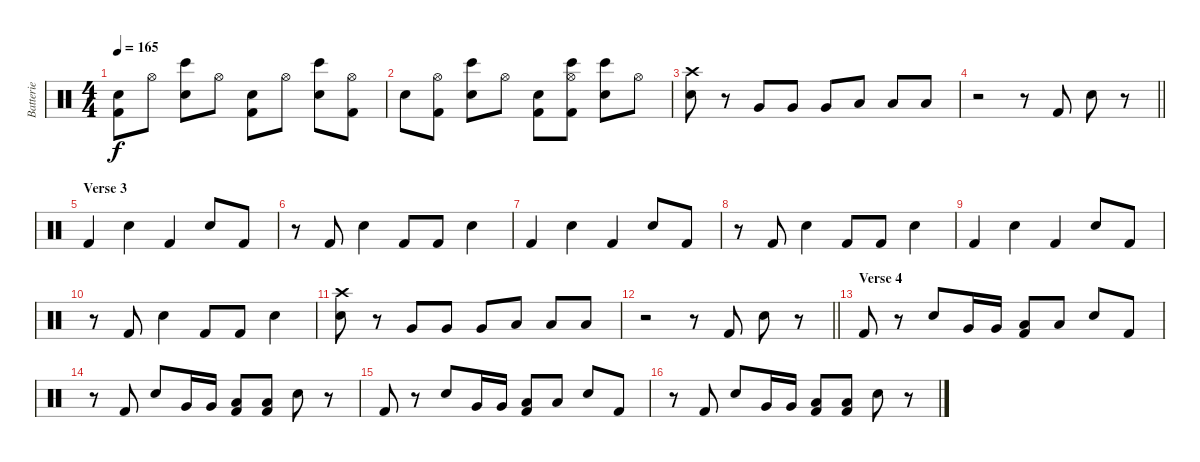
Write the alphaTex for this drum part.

\track ("Batterie" "Batterie") {instrument percussion}
\staff {score}
\articulation defaults
\ts (4 4)
\tempo 165
\clef neutral
\ks c
("Kick (hit) 2" "Electric Snare (hit)").8{dy f} "Hi-Hat (open)".8 ("Electric Snare (hit)" "Bongo High (hit)").8 "Hi-Hat (open)".8 ("Kick (hit) 2" "Electric Snare (hit)").8 "Hi-Hat (open)".8 ("Electric Snare (hit)" "Bongo High (hit)").8 ("Hi-Hat (open)" "Kick (hit) 2").8 |
"Electric Snare (hit)".8 ("Hi-Hat (open)" "Kick (hit) 2").8 ("Electric Snare (hit)" "Bongo High (hit)").8 "Hi-Hat (open)".8 ("Kick (hit) 2" "Electric Snare (hit)").8 ("Hi-Hat (open)" "Kick (hit) 2" "Bongo High (hit)").8 ("Electric Snare (hit)" "Bongo High (hit)").8 "Hi-Hat (open)".8 |
("Crash high (hit)" "Electric Snare (hit)").8 r.8 "Very Low Tom (hit)".8 "Very Low Tom (hit)".8 "Very Low Tom (hit)".8 "Low Floor Tom (hit)".8 "Low Floor Tom (hit)".8 "Low Floor Tom (hit)".8 |
\barLineRight lightlight
r.2 r.8 "Kick (hit) 2".8 "Electric Snare (hit)".8 r.8 |
\section ("" "Verse 3")
"Kick (hit) 2".4 "Electric Snare (hit)".4 "Kick (hit) 2".4 "Electric Snare (hit)".8 "Kick (hit) 2".8 |
r.8 "Kick (hit) 2".8 "Electric Snare (hit)".4 "Kick (hit) 2".8 "Kick (hit) 2".8 "Electric Snare (hit)".4 |
"Kick (hit) 2".4 "Electric Snare (hit)".4 "Kick (hit) 2".4 "Electric Snare (hit)".8 "Kick (hit) 2".8 |
r.8 "Kick (hit) 2".8 "Electric Snare (hit)".4 "Kick (hit) 2".8 "Kick (hit) 2".8 "Electric Snare (hit)".4 |
"Kick (hit) 2".4 "Electric Snare (hit)".4 "Kick (hit) 2".4 "Electric Snare (hit)".8 "Kick (hit) 2".8 |
r.8 "Kick (hit) 2".8 "Electric Snare (hit)".4 "Kick (hit) 2".8 "Kick (hit) 2".8 "Electric Snare (hit)".4 |
("Crash high (hit)" "Electric Snare (hit)").8 r.8 "Very Low Tom (hit)".8 "Very Low Tom (hit)".8 "Very Low Tom (hit)".8 "Low Floor Tom (hit)".8 "Low Floor Tom (hit)".8 "Low Floor Tom (hit)".8 |
\barLineRight lightlight
r.2 r.8 "Kick (hit) 2".8 "Electric Snare (hit)".8 r.8 |
\section ("" "Verse 4")
"Kick (hit) 2".8 r.8 "Electric Snare (hit)".8 "Very Low Tom (hit)".16 "Very Low Tom (hit)".16 ("Kick (hit) 2" "Low Floor Tom (hit)").8 "Low Floor Tom (hit)".8 "Electric Snare (hit)".8 "Kick (hit) 2".8 |
r.8 "Kick (hit) 2".8 "Electric Snare (hit)".8 "Very Low Tom (hit)".16 "Very Low Tom (hit)".16 ("Kick (hit) 2" "Low Floor Tom (hit)").8 ("Kick (hit) 2" "Low Floor Tom (hit)").8 "Electric Snare (hit)".8 r.8 |
"Kick (hit) 2".8 r.8 "Electric Snare (hit)".8 "Very Low Tom (hit)".16 "Very Low Tom (hit)".16 ("Kick (hit) 2" "Low Floor Tom (hit)").8 "Low Floor Tom (hit)".8 "Electric Snare (hit)".8 "Kick (hit) 2".8 |
r.8 "Kick (hit) 2".8 "Electric Snare (hit)".8 "Very Low Tom (hit)".16 "Very Low Tom (hit)".16 ("Kick (hit) 2" "Low Floor Tom (hit)").8 ("Kick (hit) 2" "Low Floor Tom (hit)").8 "Electric Snare (hit)".8 r.8
